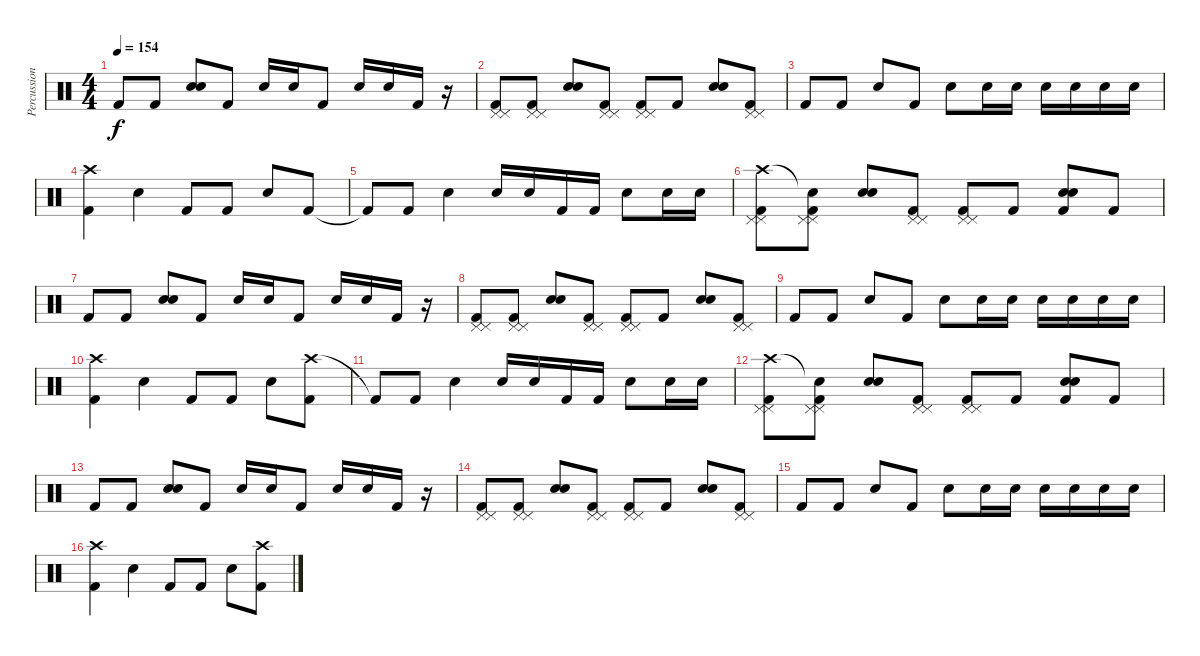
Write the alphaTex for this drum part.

\track ("Percussion" "Percussion") {instrument percussion}
\staff {score}
\articulation defaults
\ts (4 4)
\tempo 154
\clef neutral
\ks c "Kick (hit) 2".8{dy f} "Kick (hit) 2".8
("Electric Snare (hit)" "Electric Snare (hit)").8 "Kick (hit) 2".8 "Electric Snare (hit)".16 "Electric Snare (hit)".16 "Kick (hit) 2".8 "Electric Snare (hit)".16 "Electric Snare (hit)".16 "Kick (hit) 2".16 r.16 |
("Pedal Hi-Hat (hit)" "Pedal Hi-Hat (hit)" "Kick (hit) 2").8 ("Pedal Hi-Hat (hit)" "Pedal Hi-Hat (hit)" "Kick (hit) 2").8 ("Electric Snare (hit)" "Electric Snare (hit)").8 ("Pedal Hi-Hat (hit)" "Pedal Hi-Hat (hit)" "Kick (hit) 2").8 ("Pedal Hi-Hat (hit)" "Pedal Hi-Hat (hit)" "Kick (hit) 2").8 "Kick (hit) 2".8 ("Electric Snare (hit)" "Electric Snare (hit)").8 ("Pedal Hi-Hat (hit)" "Pedal Hi-Hat (hit)" "Kick (hit) 2").8 |
"Kick (hit) 2".8 "Kick (hit) 2".8 "Electric Snare (hit)".8 "Kick (hit) 2".8 "Electric Snare (hit)".8 "Electric Snare (hit)".16 "Electric Snare (hit)".16 "Electric Snare (hit)".16 "Electric Snare (hit)".16 "Electric Snare (hit)".16 "Electric Snare (hit)".16 |
("Crash high (hit)" "Kick (hit) 2").4 "Electric Snare (hit)".4 "Kick (hit) 2".8 "Kick (hit) 2".8 "Electric Snare (hit)".8 "Kick (hit) 2".8 |
"Kick (hit) 2"{t}.8 "Kick (hit) 2".8 "Electric Snare (hit)".4 "Electric Snare (hit)".16 "Electric Snare (hit)".16 "Kick (hit) 2".16 "Kick (hit) 2".16 "Electric Snare (hit)".8 "Electric Snare (hit)".16 "Electric Snare (hit)".16 |
("Pedal Hi-Hat (hit)" "Pedal Hi-Hat (hit)" "Crash high (hit)" "Kick (hit) 2").8 ("Pedal Hi-Hat (hit)" "Pedal Hi-Hat (hit)" "Snare (hit)"{t} "Kick (hit) 2").8 ("Electric Snare (hit)" "Electric Snare (hit)").8 ("Pedal Hi-Hat (hit)" "Pedal Hi-Hat (hit)" "Kick (hit) 2").8 ("Pedal Hi-Hat (hit)" "Pedal Hi-Hat (hit)" "Kick (hit) 2").8 "Kick (hit) 2".8 ("Electric Snare (hit)" "Electric Snare (hit)" "Kick (hit) 2").8 "Kick (hit) 2".8 |
"Kick (hit) 2".8 "Kick (hit) 2".8 ("Electric Snare (hit)" "Electric Snare (hit)").8 "Kick (hit) 2".8 "Electric Snare (hit)".16 "Electric Snare (hit)".16 "Kick (hit) 2".8 "Electric Snare (hit)".16 "Electric Snare (hit)".16 "Kick (hit) 2".16 r.16 |
("Pedal Hi-Hat (hit)" "Pedal Hi-Hat (hit)" "Kick (hit) 2").8 ("Pedal Hi-Hat (hit)" "Pedal Hi-Hat (hit)" "Kick (hit) 2").8 ("Electric Snare (hit)" "Electric Snare (hit)").8 ("Pedal Hi-Hat (hit)" "Pedal Hi-Hat (hit)" "Kick (hit) 2").8 ("Pedal Hi-Hat (hit)" "Pedal Hi-Hat (hit)" "Kick (hit) 2").8 "Kick (hit) 2".8 ("Electric Snare (hit)" "Electric Snare (hit)").8 ("Pedal Hi-Hat (hit)" "Pedal Hi-Hat (hit)" "Kick (hit) 2").8 |
"Kick (hit) 2".8 "Kick (hit) 2".8 "Electric Snare (hit)".8 "Kick (hit) 2".8 "Electric Snare (hit)".8 "Electric Snare (hit)".16 "Electric Snare (hit)".16 "Electric Snare (hit)".16 "Electric Snare (hit)".16 "Electric Snare (hit)".16 "Electric Snare (hit)".16 |
("Crash high (hit)" "Kick (hit) 2").4 "Electric Snare (hit)".4 "Kick (hit) 2".8 "Kick (hit) 2".8 "Electric Snare (hit)".8 ("Crash high (hit)" "Kick (hit) 2").8 |
"Kick (hit) 2"{t}.8 "Kick (hit) 2".8 "Electric Snare (hit)".4 "Electric Snare (hit)".16 "Electric Snare (hit)".16 "Kick (hit) 2".16 "Kick (hit) 2".16 "Electric Snare (hit)".8 "Electric Snare (hit)".16 "Electric Snare (hit)".16 |
("Pedal Hi-Hat (hit)" "Pedal Hi-Hat (hit)" "Crash high (hit)" "Kick (hit) 2").8 ("Pedal Hi-Hat (hit)" "Pedal Hi-Hat (hit)" "Snare (hit)"{t} "Kick (hit) 2").8 ("Electric Snare (hit)" "Electric Snare (hit)").8 ("Pedal Hi-Hat (hit)" "Pedal Hi-Hat (hit)" "Kick (hit) 2").8 ("Pedal Hi-Hat (hit)" "Pedal Hi-Hat (hit)" "Kick (hit) 2").8 "Kick (hit) 2".8 ("Electric Snare (hit)" "Electric Snare (hit)" "Kick (hit) 2").8 "Kick (hit) 2".8 |
"Kick (hit) 2".8 "Kick (hit) 2".8 ("Electric Snare (hit)" "Electric Snare (hit)").8 "Kick (hit) 2".8 "Electric Snare (hit)".16 "Electric Snare (hit)".16 "Kick (hit) 2".8 "Electric Snare (hit)".16 "Electric Snare (hit)".16 "Kick (hit) 2".16 r.16 |
("Pedal Hi-Hat (hit)" "Pedal Hi-Hat (hit)" "Kick (hit) 2").8 ("Pedal Hi-Hat (hit)" "Pedal Hi-Hat (hit)" "Kick (hit) 2").8 ("Electric Snare (hit)" "Electric Snare (hit)").8 ("Pedal Hi-Hat (hit)" "Pedal Hi-Hat (hit)" "Kick (hit) 2").8 ("Pedal Hi-Hat (hit)" "Pedal Hi-Hat (hit)" "Kick (hit) 2").8 "Kick (hit) 2".8 ("Electric Snare (hit)" "Electric Snare (hit)").8 ("Pedal Hi-Hat (hit)" "Pedal Hi-Hat (hit)" "Kick (hit) 2").8 |
"Kick (hit) 2".8 "Kick (hit) 2".8 "Electric Snare (hit)".8 "Kick (hit) 2".8 "Electric Snare (hit)".8 "Electric Snare (hit)".16 "Electric Snare (hit)".16 "Electric Snare (hit)".16 "Electric Snare (hit)".16 "Electric Snare (hit)".16 "Electric Snare (hit)".16 |
("Crash high (hit)" "Kick (hit) 2").4 "Electric Snare (hit)".4 "Kick (hit) 2".8 "Kick (hit) 2".8 "Electric Snare (hit)".8 ("Crash high (hit)" "Kick (hit) 2").8
